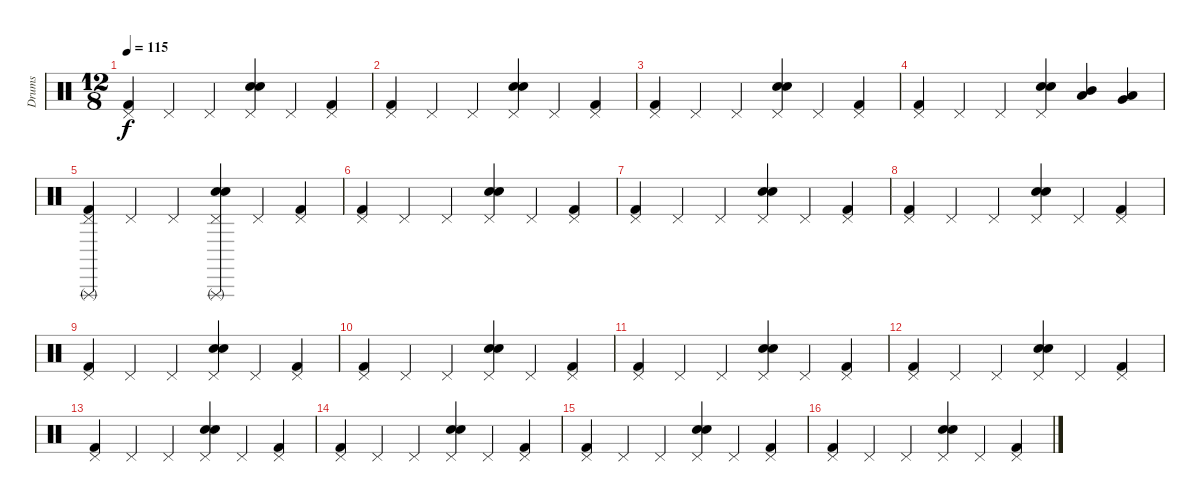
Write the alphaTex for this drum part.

\track ("Drums" "Drums") {instrument percussion}
\staff {score}
\articulation defaults
\ts (12 8)
\tempo 115
\clef neutral
\ks c
("Kick (hit) 2" "Pedal Hi-Hat (hit)").4{dy f} "Pedal Hi-Hat (hit)".4 "Pedal Hi-Hat (hit)".4 ("Electric Snare (hit)" "Snare (hit) 2" "Pedal Hi-Hat (hit)").4 "Pedal Hi-Hat (hit)".4 ("Kick (hit) 2" "Pedal Hi-Hat (hit)").4 |
("Kick (hit) 2" "Pedal Hi-Hat (hit)").4 "Pedal Hi-Hat (hit)".4 "Pedal Hi-Hat (hit)".4 ("Electric Snare (hit)" "Snare (hit) 2" "Pedal Hi-Hat (hit)").4 "Pedal Hi-Hat (hit)".4 ("Kick (hit) 2" "Pedal Hi-Hat (hit)").4 |
("Kick (hit) 2" "Pedal Hi-Hat (hit)").4 "Pedal Hi-Hat (hit)".4 "Pedal Hi-Hat (hit)".4 ("Electric Snare (hit)" "Snare (hit) 2" "Pedal Hi-Hat (hit)").4 "Pedal Hi-Hat (hit)".4 ("Kick (hit) 2" "Pedal Hi-Hat (hit)").4 |
("Kick (hit) 2" "Pedal Hi-Hat (hit)").4 "Pedal Hi-Hat (hit)".4 "Pedal Hi-Hat (hit)".4 ("Electric Snare (hit)" "Snare (hit) 2" "Pedal Hi-Hat (hit)").4 ("Mid Tom (hit)" "Low Tom (hit)").4 ("Low Tom (hit)" "Very Low Tom (hit)").4 |
("Triangle (rnute)" "Kick (hit) 2" "Pedal Hi-Hat (hit)").4 "Pedal Hi-Hat (hit)".4 "Pedal Hi-Hat (hit)".4 ("Triangle (rnute)" "Electric Snare (hit)" "Snare (hit) 2" "Pedal Hi-Hat (hit)").4 "Pedal Hi-Hat (hit)".4 ("Kick (hit) 2" "Pedal Hi-Hat (hit)").4 |
("Kick (hit) 2" "Pedal Hi-Hat (hit)").4 "Pedal Hi-Hat (hit)".4 "Pedal Hi-Hat (hit)".4 ("Electric Snare (hit)" "Snare (hit) 2" "Pedal Hi-Hat (hit)").4 "Pedal Hi-Hat (hit)".4 ("Kick (hit) 2" "Pedal Hi-Hat (hit)").4 |
("Kick (hit) 2" "Pedal Hi-Hat (hit)").4 "Pedal Hi-Hat (hit)".4 "Pedal Hi-Hat (hit)".4 ("Electric Snare (hit)" "Snare (hit) 2" "Pedal Hi-Hat (hit)").4 "Pedal Hi-Hat (hit)".4 ("Kick (hit) 2" "Pedal Hi-Hat (hit)").4 |
("Kick (hit) 2" "Pedal Hi-Hat (hit)").4 "Pedal Hi-Hat (hit)".4 "Pedal Hi-Hat (hit)".4 ("Electric Snare (hit)" "Snare (hit) 2" "Pedal Hi-Hat (hit)").4 "Pedal Hi-Hat (hit)".4 ("Kick (hit) 2" "Pedal Hi-Hat (hit)").4 |
("Kick (hit) 2" "Pedal Hi-Hat (hit)").4 "Pedal Hi-Hat (hit)".4 "Pedal Hi-Hat (hit)".4 ("Electric Snare (hit)" "Snare (hit) 2" "Pedal Hi-Hat (hit)").4 "Pedal Hi-Hat (hit)".4 ("Kick (hit) 2" "Pedal Hi-Hat (hit)").4 |
("Kick (hit) 2" "Pedal Hi-Hat (hit)").4 "Pedal Hi-Hat (hit)".4 "Pedal Hi-Hat (hit)".4 ("Electric Snare (hit)" "Snare (hit) 2" "Pedal Hi-Hat (hit)").4 "Pedal Hi-Hat (hit)".4 ("Kick (hit) 2" "Pedal Hi-Hat (hit)").4 |
("Kick (hit) 2" "Pedal Hi-Hat (hit)").4 "Pedal Hi-Hat (hit)".4 "Pedal Hi-Hat (hit)".4 ("Electric Snare (hit)" "Snare (hit) 2" "Pedal Hi-Hat (hit)").4 "Pedal Hi-Hat (hit)".4 ("Kick (hit) 2" "Pedal Hi-Hat (hit)").4 |
("Kick (hit) 2" "Pedal Hi-Hat (hit)").4 "Pedal Hi-Hat (hit)".4 "Pedal Hi-Hat (hit)".4 ("Electric Snare (hit)" "Snare (hit) 2" "Pedal Hi-Hat (hit)").4 "Pedal Hi-Hat (hit)".4 ("Kick (hit) 2" "Pedal Hi-Hat (hit)").4 |
("Kick (hit) 2" "Pedal Hi-Hat (hit)").4 "Pedal Hi-Hat (hit)".4 "Pedal Hi-Hat (hit)".4 ("Electric Snare (hit)" "Snare (hit) 2" "Pedal Hi-Hat (hit)").4 "Pedal Hi-Hat (hit)".4 ("Kick (hit) 2" "Pedal Hi-Hat (hit)").4 |
("Kick (hit) 2" "Pedal Hi-Hat (hit)").4 "Pedal Hi-Hat (hit)".4 "Pedal Hi-Hat (hit)".4 ("Electric Snare (hit)" "Snare (hit) 2" "Pedal Hi-Hat (hit)").4 "Pedal Hi-Hat (hit)".4 ("Kick (hit) 2" "Pedal Hi-Hat (hit)").4 |
("Kick (hit) 2" "Pedal Hi-Hat (hit)").4 "Pedal Hi-Hat (hit)".4 "Pedal Hi-Hat (hit)".4 ("Electric Snare (hit)" "Snare (hit) 2" "Pedal Hi-Hat (hit)").4 "Pedal Hi-Hat (hit)".4 ("Kick (hit) 2" "Pedal Hi-Hat (hit)").4 |
("Kick (hit) 2" "Pedal Hi-Hat (hit)").4 "Pedal Hi-Hat (hit)".4 "Pedal Hi-Hat (hit)".4 ("Electric Snare (hit)" "Snare (hit) 2" "Pedal Hi-Hat (hit)").4 "Pedal Hi-Hat (hit)".4 ("Kick (hit) 2" "Pedal Hi-Hat (hit)").4
